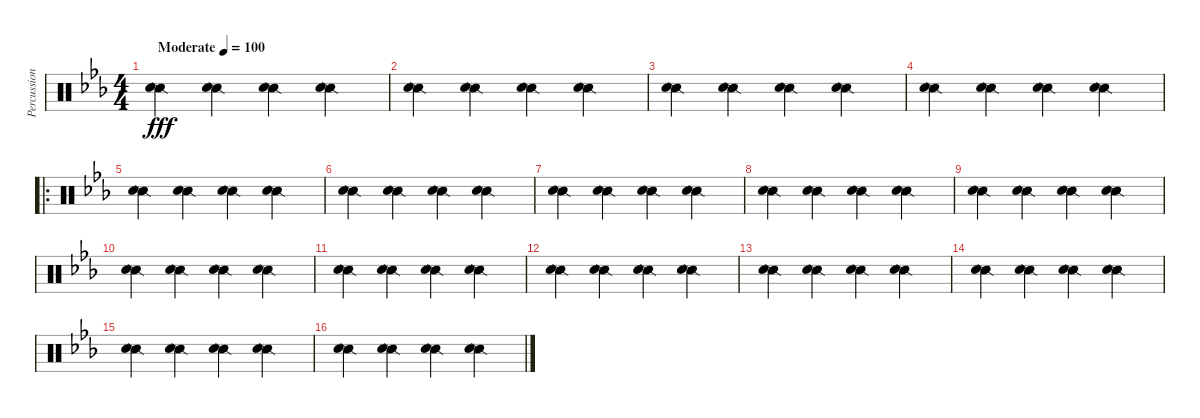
\track ("Percussions" "Percussion") {instrument percussion}
\staff {score}
\articulation defaults
\ts (4 4)
\tempo (100 "Moderate")
\clef neutral
\ks eb
("Snare (side stick) 2" "Snare (hit) 2").4{dy fff} ("Snare (side stick) 2" "Snare (hit) 2").4 ("Snare (side stick) 2" "Snare (hit) 2").4 ("Snare (side stick) 2" "Snare (hit) 2").4 |
("Snare (side stick) 2" "Snare (hit) 2").4 ("Snare (side stick) 2" "Snare (hit) 2").4 ("Snare (side stick) 2" "Snare (hit) 2").4 ("Snare (side stick) 2" "Snare (hit) 2").4 |
("Snare (side stick) 2" "Snare (hit) 2").4 ("Snare (side stick) 2" "Snare (hit) 2").4 ("Snare (side stick) 2" "Snare (hit) 2").4 ("Snare (side stick) 2" "Snare (hit) 2").4 |
("Snare (side stick) 2" "Snare (hit) 2").4 ("Snare (side stick) 2" "Snare (hit) 2").4 ("Snare (side stick) 2" "Snare (hit) 2").4 ("Snare (side stick) 2" "Snare (hit) 2").4 |
\ro
("Snare (side stick) 2" "Snare (hit) 2").4 ("Snare (side stick) 2" "Snare (hit) 2").4 ("Snare (side stick) 2" "Snare (hit) 2").4 ("Snare (side stick) 2" "Snare (hit) 2").4 |
("Snare (side stick) 2" "Snare (hit) 2").4 ("Snare (side stick) 2" "Snare (hit) 2").4 ("Snare (side stick) 2" "Snare (hit) 2").4 ("Snare (side stick) 2" "Snare (hit) 2").4 |
("Snare (side stick) 2" "Snare (hit) 2").4 ("Snare (side stick) 2" "Snare (hit) 2").4 ("Snare (side stick) 2" "Snare (hit) 2").4 ("Snare (side stick) 2" "Snare (hit) 2").4 |
("Snare (side stick) 2" "Snare (hit) 2").4 ("Snare (side stick) 2" "Snare (hit) 2").4 ("Snare (side stick) 2" "Snare (hit) 2").4 ("Snare (side stick) 2" "Snare (hit) 2").4 |
("Snare (side stick) 2" "Snare (hit) 2").4 ("Snare (side stick) 2" "Snare (hit) 2").4 ("Snare (side stick) 2" "Snare (hit) 2").4 ("Snare (side stick) 2" "Snare (hit) 2").4 |
("Snare (side stick) 2" "Snare (hit) 2").4 ("Snare (side stick) 2" "Snare (hit) 2").4 ("Snare (side stick) 2" "Snare (hit) 2").4 ("Snare (side stick) 2" "Snare (hit) 2").4 |
("Snare (side stick) 2" "Snare (hit) 2").4 ("Snare (side stick) 2" "Snare (hit) 2").4 ("Snare (side stick) 2" "Snare (hit) 2").4 ("Snare (side stick) 2" "Snare (hit) 2").4 |
("Snare (side stick) 2" "Snare (hit) 2").4 ("Snare (side stick) 2" "Snare (hit) 2").4 ("Snare (side stick) 2" "Snare (hit) 2").4 ("Snare (side stick) 2" "Snare (hit) 2").4 |
("Snare (side stick) 2" "Snare (hit) 2").4 ("Snare (side stick) 2" "Snare (hit) 2").4 ("Snare (side stick) 2" "Snare (hit) 2").4 ("Snare (side stick) 2" "Snare (hit) 2").4 |
("Snare (side stick) 2" "Snare (hit) 2").4 ("Snare (side stick) 2" "Snare (hit) 2").4 ("Snare (side stick) 2" "Snare (hit) 2").4 ("Snare (side stick) 2" "Snare (hit) 2").4 |
("Snare (side stick) 2" "Snare (hit) 2").4 ("Snare (side stick) 2" "Snare (hit) 2").4 ("Snare (side stick) 2" "Snare (hit) 2").4 ("Snare (side stick) 2" "Snare (hit) 2").4 |
("Snare (side stick) 2" "Snare (hit) 2").4 ("Snare (side stick) 2" "Snare (hit) 2").4 ("Snare (side stick) 2" "Snare (hit) 2").4 ("Snare (side stick) 2" "Snare (hit) 2").4
